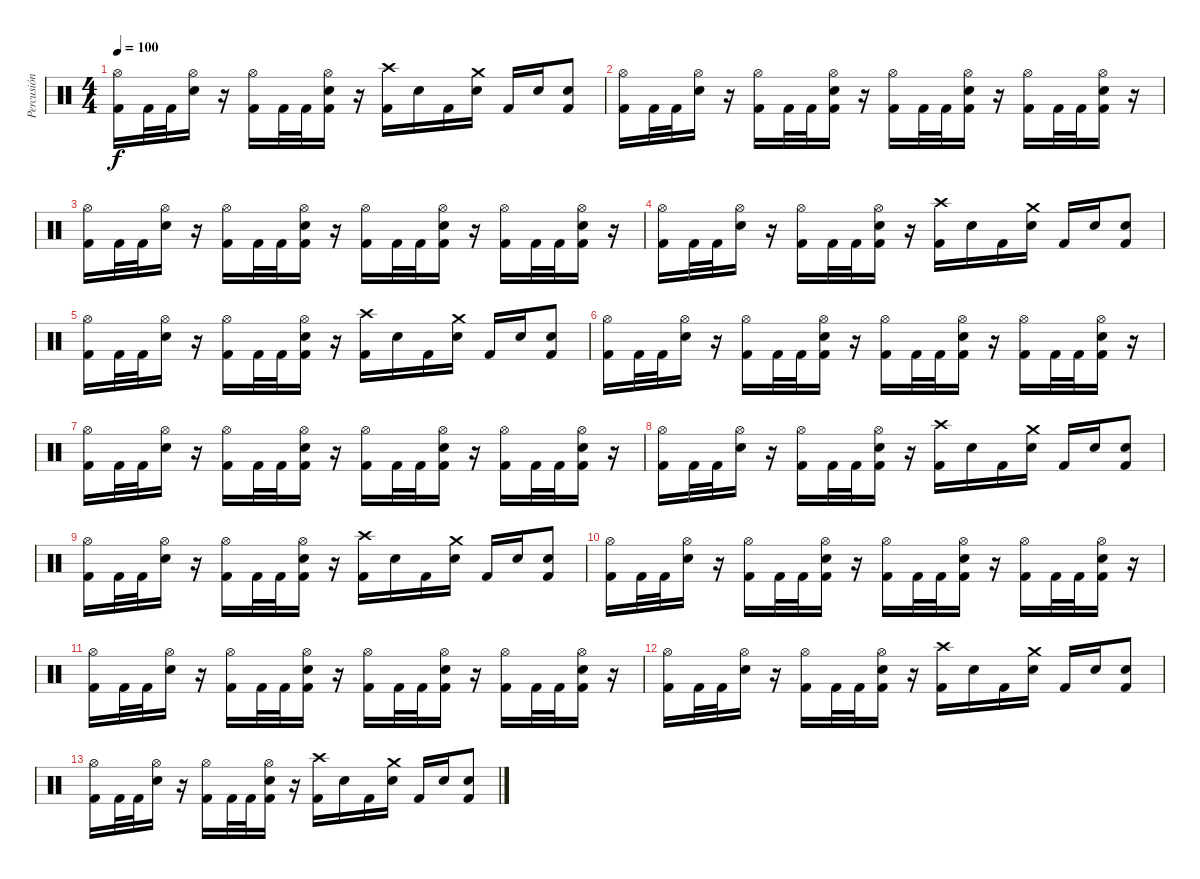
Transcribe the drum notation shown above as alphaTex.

\track ("Percusión" "Percusión") {instrument percussion}
\staff {score}
\articulation defaults
\ts (4 4)
\tempo 100
\clef neutral
\ks c
("Hi-Hat (open)" "Kick (hit) 2").16{dy f} "Kick (hit) 2".32 "Kick (hit) 2".32 ("Hi-Hat (open)" "Electric Snare (hit)").16 r.16 ("Hi-Hat (open)" "Kick (hit) 2").16 "Kick (hit) 2".32 "Kick (hit) 2".32 ("Hi-Hat (open)" "Electric Snare (hit)" "Kick (hit) 2").16 r.16 ("Crash high (hit)" "Kick (hit) 2").16 "Electric Snare (hit)".16 "Kick (hit) 2".16 ("Crash medium (hit)" "Electric Snare (hit)").16 "Kick (hit) 2".16 "Electric Snare (hit)".16 ("Electric Snare (hit)" "Kick (hit) 2").8 |
("Hi-Hat (open)" "Kick (hit) 2").16 "Kick (hit) 2".32 "Kick (hit) 2".32 ("Hi-Hat (open)" "Electric Snare (hit)").16 r.16 ("Hi-Hat (open)" "Kick (hit) 2").16 "Kick (hit) 2".32 "Kick (hit) 2".32 ("Hi-Hat (open)" "Electric Snare (hit)" "Kick (hit) 2").16 r.16 ("Hi-Hat (open)" "Kick (hit) 2").16 "Kick (hit) 2".32 "Kick (hit) 2".32 ("Hi-Hat (open)" "Electric Snare (hit)" "Kick (hit) 2").16 r.16 ("Hi-Hat (open)" "Kick (hit) 2").16 "Kick (hit) 2".32 "Kick (hit) 2".32 ("Hi-Hat (open)" "Electric Snare (hit)" "Kick (hit) 2").16 r.16 |
("Hi-Hat (open)" "Kick (hit) 2").16 "Kick (hit) 2".32 "Kick (hit) 2".32 ("Hi-Hat (open)" "Electric Snare (hit)").16 r.16 ("Hi-Hat (open)" "Kick (hit) 2").16 "Kick (hit) 2".32 "Kick (hit) 2".32 ("Hi-Hat (open)" "Electric Snare (hit)" "Kick (hit) 2").16 r.16 ("Hi-Hat (open)" "Kick (hit) 2").16 "Kick (hit) 2".32 "Kick (hit) 2".32 ("Hi-Hat (open)" "Electric Snare (hit)" "Kick (hit) 2").16 r.16 ("Hi-Hat (open)" "Kick (hit) 2").16 "Kick (hit) 2".32 "Kick (hit) 2".32 ("Hi-Hat (open)" "Electric Snare (hit)" "Kick (hit) 2").16 r.16 |
("Hi-Hat (open)" "Kick (hit) 2").16 "Kick (hit) 2".32 "Kick (hit) 2".32 ("Hi-Hat (open)" "Electric Snare (hit)").16 r.16 ("Hi-Hat (open)" "Kick (hit) 2").16 "Kick (hit) 2".32 "Kick (hit) 2".32 ("Hi-Hat (open)" "Electric Snare (hit)" "Kick (hit) 2").16 r.16 ("Crash high (hit)" "Kick (hit) 2").16 "Electric Snare (hit)".16 "Kick (hit) 2".16 ("Crash medium (hit)" "Electric Snare (hit)").16 "Kick (hit) 2".16 "Electric Snare (hit)".16 ("Electric Snare (hit)" "Kick (hit) 2").8 |
("Hi-Hat (open)" "Kick (hit) 2").16 "Kick (hit) 2".32 "Kick (hit) 2".32 ("Hi-Hat (open)" "Electric Snare (hit)").16 r.16 ("Hi-Hat (open)" "Kick (hit) 2").16 "Kick (hit) 2".32 "Kick (hit) 2".32 ("Hi-Hat (open)" "Electric Snare (hit)" "Kick (hit) 2").16 r.16 ("Crash high (hit)" "Kick (hit) 2").16 "Electric Snare (hit)".16 "Kick (hit) 2".16 ("Crash medium (hit)" "Electric Snare (hit)").16 "Kick (hit) 2".16 "Electric Snare (hit)".16 ("Electric Snare (hit)" "Kick (hit) 2").8 |
("Hi-Hat (open)" "Kick (hit) 2").16 "Kick (hit) 2".32 "Kick (hit) 2".32 ("Hi-Hat (open)" "Electric Snare (hit)").16 r.16 ("Hi-Hat (open)" "Kick (hit) 2").16 "Kick (hit) 2".32 "Kick (hit) 2".32 ("Hi-Hat (open)" "Electric Snare (hit)" "Kick (hit) 2").16 r.16 ("Hi-Hat (open)" "Kick (hit) 2").16 "Kick (hit) 2".32 "Kick (hit) 2".32 ("Hi-Hat (open)" "Electric Snare (hit)" "Kick (hit) 2").16 r.16 ("Hi-Hat (open)" "Kick (hit) 2").16 "Kick (hit) 2".32 "Kick (hit) 2".32 ("Hi-Hat (open)" "Electric Snare (hit)" "Kick (hit) 2").16 r.16 |
("Hi-Hat (open)" "Kick (hit) 2").16 "Kick (hit) 2".32 "Kick (hit) 2".32 ("Hi-Hat (open)" "Electric Snare (hit)").16 r.16 ("Hi-Hat (open)" "Kick (hit) 2").16 "Kick (hit) 2".32 "Kick (hit) 2".32 ("Hi-Hat (open)" "Electric Snare (hit)" "Kick (hit) 2").16 r.16 ("Hi-Hat (open)" "Kick (hit) 2").16 "Kick (hit) 2".32 "Kick (hit) 2".32 ("Hi-Hat (open)" "Electric Snare (hit)" "Kick (hit) 2").16 r.16 ("Hi-Hat (open)" "Kick (hit) 2").16 "Kick (hit) 2".32 "Kick (hit) 2".32 ("Hi-Hat (open)" "Electric Snare (hit)" "Kick (hit) 2").16 r.16 |
("Hi-Hat (open)" "Kick (hit) 2").16 "Kick (hit) 2".32 "Kick (hit) 2".32 ("Hi-Hat (open)" "Electric Snare (hit)").16 r.16 ("Hi-Hat (open)" "Kick (hit) 2").16 "Kick (hit) 2".32 "Kick (hit) 2".32 ("Hi-Hat (open)" "Electric Snare (hit)" "Kick (hit) 2").16 r.16 ("Crash high (hit)" "Kick (hit) 2").16 "Electric Snare (hit)".16 "Kick (hit) 2".16 ("Crash medium (hit)" "Electric Snare (hit)").16 "Kick (hit) 2".16 "Electric Snare (hit)".16 ("Electric Snare (hit)" "Kick (hit) 2").8 |
("Hi-Hat (open)" "Kick (hit) 2").16 "Kick (hit) 2".32 "Kick (hit) 2".32 ("Hi-Hat (open)" "Electric Snare (hit)").16 r.16 ("Hi-Hat (open)" "Kick (hit) 2").16 "Kick (hit) 2".32 "Kick (hit) 2".32 ("Hi-Hat (open)" "Electric Snare (hit)" "Kick (hit) 2").16 r.16 ("Crash high (hit)" "Kick (hit) 2").16 "Electric Snare (hit)".16 "Kick (hit) 2".16 ("Crash medium (hit)" "Electric Snare (hit)").16 "Kick (hit) 2".16 "Electric Snare (hit)".16 ("Electric Snare (hit)" "Kick (hit) 2").8 |
("Hi-Hat (open)" "Kick (hit) 2").16 "Kick (hit) 2".32 "Kick (hit) 2".32 ("Hi-Hat (open)" "Electric Snare (hit)").16 r.16 ("Hi-Hat (open)" "Kick (hit) 2").16 "Kick (hit) 2".32 "Kick (hit) 2".32 ("Hi-Hat (open)" "Electric Snare (hit)" "Kick (hit) 2").16 r.16 ("Hi-Hat (open)" "Kick (hit) 2").16 "Kick (hit) 2".32 "Kick (hit) 2".32 ("Hi-Hat (open)" "Electric Snare (hit)" "Kick (hit) 2").16 r.16 ("Hi-Hat (open)" "Kick (hit) 2").16 "Kick (hit) 2".32 "Kick (hit) 2".32 ("Hi-Hat (open)" "Electric Snare (hit)" "Kick (hit) 2").16 r.16 |
("Hi-Hat (open)" "Kick (hit) 2").16 "Kick (hit) 2".32 "Kick (hit) 2".32 ("Hi-Hat (open)" "Electric Snare (hit)").16 r.16 ("Hi-Hat (open)" "Kick (hit) 2").16 "Kick (hit) 2".32 "Kick (hit) 2".32 ("Hi-Hat (open)" "Electric Snare (hit)" "Kick (hit) 2").16 r.16 ("Hi-Hat (open)" "Kick (hit) 2").16 "Kick (hit) 2".32 "Kick (hit) 2".32 ("Hi-Hat (open)" "Electric Snare (hit)" "Kick (hit) 2").16 r.16 ("Hi-Hat (open)" "Kick (hit) 2").16 "Kick (hit) 2".32 "Kick (hit) 2".32 ("Hi-Hat (open)" "Electric Snare (hit)" "Kick (hit) 2").16 r.16 |
("Hi-Hat (open)" "Kick (hit) 2").16 "Kick (hit) 2".32 "Kick (hit) 2".32 ("Hi-Hat (open)" "Electric Snare (hit)").16 r.16 ("Hi-Hat (open)" "Kick (hit) 2").16 "Kick (hit) 2".32 "Kick (hit) 2".32 ("Hi-Hat (open)" "Electric Snare (hit)" "Kick (hit) 2").16 r.16 ("Crash high (hit)" "Kick (hit) 2").16 "Electric Snare (hit)".16 "Kick (hit) 2".16 ("Crash medium (hit)" "Electric Snare (hit)").16 "Kick (hit) 2".16 "Electric Snare (hit)".16 ("Electric Snare (hit)" "Kick (hit) 2").8 |
("Hi-Hat (open)" "Kick (hit) 2").16 "Kick (hit) 2".32 "Kick (hit) 2".32 ("Hi-Hat (open)" "Electric Snare (hit)").16 r.16 ("Hi-Hat (open)" "Kick (hit) 2").16 "Kick (hit) 2".32 "Kick (hit) 2".32 ("Hi-Hat (open)" "Electric Snare (hit)" "Kick (hit) 2").16 r.16 ("Crash high (hit)" "Kick (hit) 2").16 "Electric Snare (hit)".16 "Kick (hit) 2".16 ("Crash medium (hit)" "Electric Snare (hit)").16 "Kick (hit) 2".16 "Electric Snare (hit)".16 ("Electric Snare (hit)" "Kick (hit) 2").8
